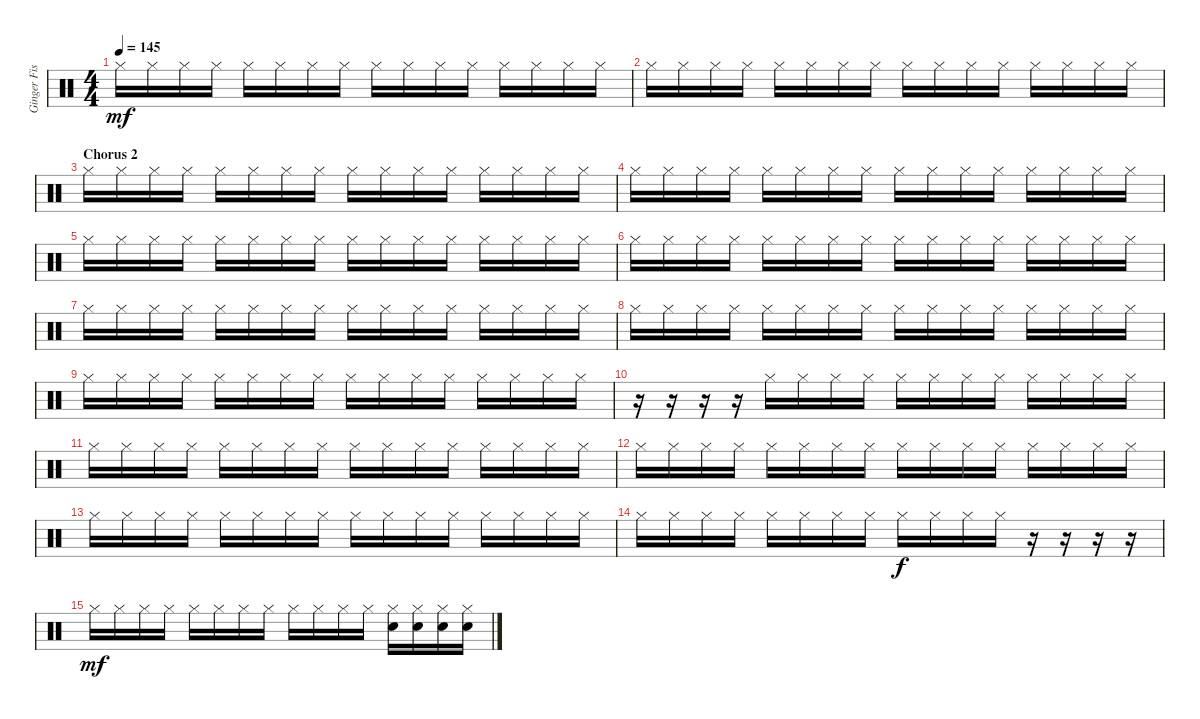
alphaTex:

\track ("Ginger Fish [Aditional Drums]" "Ginger Fis") {instrument percussion}
\staff {score}
\articulation defaults
\ts (4 4)
\tempo 145
\clef neutral
\ks c "Hi-Hat (closed)".16{dy mf} "Hi-Hat (closed)".16 "Hi-Hat (closed)".16 "Hi-Hat (closed)".16 "Hi-Hat (closed)".16 "Hi-Hat (closed)".16 "Hi-Hat (closed)".16 "Hi-Hat (closed)".16 "Hi-Hat (closed)".16 "Hi-Hat (closed)".16 "Hi-Hat (closed)".16 "Hi-Hat (closed)".16 "Hi-Hat (closed)".16 "Hi-Hat (closed)".16 "Hi-Hat (closed)".16 "Hi-Hat (closed)".16
|
"Hi-Hat (closed)".16 "Hi-Hat (closed)".16 "Hi-Hat (closed)".16 "Hi-Hat (closed)".16 "Hi-Hat (closed)".16 "Hi-Hat (closed)".16 "Hi-Hat (closed)".16 "Hi-Hat (closed)".16 "Hi-Hat (closed)".16 "Hi-Hat (closed)".16 "Hi-Hat (closed)".16 "Hi-Hat (closed)".16 "Hi-Hat (closed)".16 "Hi-Hat (closed)".16 "Hi-Hat (closed)".16 "Hi-Hat (closed)".16 |
\section ("" "Chorus 2")
"Hi-Hat (closed)".16 "Hi-Hat (closed)".16 "Hi-Hat (closed)".16 "Hi-Hat (closed)".16 "Hi-Hat (closed)".16 "Hi-Hat (closed)".16 "Hi-Hat (closed)".16 "Hi-Hat (closed)".16 "Hi-Hat (closed)".16 "Hi-Hat (closed)".16 "Hi-Hat (closed)".16 "Hi-Hat (closed)".16 "Hi-Hat (closed)".16 "Hi-Hat (closed)".16 "Hi-Hat (closed)".16 "Hi-Hat (closed)".16 |
"Hi-Hat (closed)".16 "Hi-Hat (closed)".16 "Hi-Hat (closed)".16 "Hi-Hat (closed)".16 "Hi-Hat (closed)".16 "Hi-Hat (closed)".16 "Hi-Hat (closed)".16 "Hi-Hat (closed)".16 "Hi-Hat (closed)".16 "Hi-Hat (closed)".16 "Hi-Hat (closed)".16 "Hi-Hat (closed)".16 "Hi-Hat (closed)".16 "Hi-Hat (closed)".16 "Hi-Hat (closed)".16 "Hi-Hat (closed)".16 |
"Hi-Hat (closed)".16 "Hi-Hat (closed)".16 "Hi-Hat (closed)".16 "Hi-Hat (closed)".16 "Hi-Hat (closed)".16 "Hi-Hat (closed)".16 "Hi-Hat (closed)".16 "Hi-Hat (closed)".16 "Hi-Hat (closed)".16 "Hi-Hat (closed)".16 "Hi-Hat (closed)".16 "Hi-Hat (closed)".16 "Hi-Hat (closed)".16 "Hi-Hat (closed)".16 "Hi-Hat (closed)".16 "Hi-Hat (closed)".16 |
"Hi-Hat (closed)".16 "Hi-Hat (closed)".16 "Hi-Hat (closed)".16 "Hi-Hat (closed)".16 "Hi-Hat (closed)".16 "Hi-Hat (closed)".16 "Hi-Hat (closed)".16 "Hi-Hat (closed)".16 "Hi-Hat (closed)".16 "Hi-Hat (closed)".16 "Hi-Hat (closed)".16 "Hi-Hat (closed)".16 "Hi-Hat (closed)".16 "Hi-Hat (closed)".16 "Hi-Hat (closed)".16 "Hi-Hat (closed)".16 |
"Hi-Hat (closed)".16 "Hi-Hat (closed)".16 "Hi-Hat (closed)".16 "Hi-Hat (closed)".16 "Hi-Hat (closed)".16 "Hi-Hat (closed)".16 "Hi-Hat (closed)".16 "Hi-Hat (closed)".16 "Hi-Hat (closed)".16 "Hi-Hat (closed)".16 "Hi-Hat (closed)".16 "Hi-Hat (closed)".16 "Hi-Hat (closed)".16 "Hi-Hat (closed)".16 "Hi-Hat (closed)".16 "Hi-Hat (closed)".16 |
"Hi-Hat (closed)".16 "Hi-Hat (closed)".16 "Hi-Hat (closed)".16 "Hi-Hat (closed)".16 "Hi-Hat (closed)".16 "Hi-Hat (closed)".16 "Hi-Hat (closed)".16 "Hi-Hat (closed)".16 "Hi-Hat (closed)".16 "Hi-Hat (closed)".16 "Hi-Hat (closed)".16 "Hi-Hat (closed)".16 "Hi-Hat (closed)".16 "Hi-Hat (closed)".16 "Hi-Hat (closed)".16 "Hi-Hat (closed)".16 |
"Hi-Hat (closed)".16 "Hi-Hat (closed)".16 "Hi-Hat (closed)".16 "Hi-Hat (closed)".16 "Hi-Hat (closed)".16 "Hi-Hat (closed)".16 "Hi-Hat (closed)".16 "Hi-Hat (closed)".16 "Hi-Hat (closed)".16 "Hi-Hat (closed)".16 "Hi-Hat (closed)".16 "Hi-Hat (closed)".16 "Hi-Hat (closed)".16 "Hi-Hat (closed)".16 "Hi-Hat (closed)".16 "Hi-Hat (closed)".16 |
r.16 r.16 r.16 r.16 "Hi-Hat (closed)".16 "Hi-Hat (closed)".16 "Hi-Hat (closed)".16 "Hi-Hat (closed)".16 "Hi-Hat (closed)".16 "Hi-Hat (closed)".16 "Hi-Hat (closed)".16 "Hi-Hat (closed)".16 "Hi-Hat (closed)".16 "Hi-Hat (closed)".16 "Hi-Hat (closed)".16 "Hi-Hat (closed)".16 |
"Hi-Hat (closed)".16 "Hi-Hat (closed)".16 "Hi-Hat (closed)".16 "Hi-Hat (closed)".16 "Hi-Hat (closed)".16 "Hi-Hat (closed)".16 "Hi-Hat (closed)".16 "Hi-Hat (closed)".16 "Hi-Hat (closed)".16 "Hi-Hat (closed)".16 "Hi-Hat (closed)".16 "Hi-Hat (closed)".16 "Hi-Hat (closed)".16 "Hi-Hat (closed)".16 "Hi-Hat (closed)".16 "Hi-Hat (closed)".16 |
"Hi-Hat (closed)".16 "Hi-Hat (closed)".16 "Hi-Hat (closed)".16 "Hi-Hat (closed)".16 "Hi-Hat (closed)".16 "Hi-Hat (closed)".16 "Hi-Hat (closed)".16 "Hi-Hat (closed)".16 "Hi-Hat (closed)".16 "Hi-Hat (closed)".16 "Hi-Hat (closed)".16 "Hi-Hat (closed)".16 "Hi-Hat (closed)".16 "Hi-Hat (closed)".16 "Hi-Hat (closed)".16 "Hi-Hat (closed)".16 |
"Hi-Hat (closed)".16 "Hi-Hat (closed)".16 "Hi-Hat (closed)".16 "Hi-Hat (closed)".16 "Hi-Hat (closed)".16 "Hi-Hat (closed)".16 "Hi-Hat (closed)".16 "Hi-Hat (closed)".16 "Hi-Hat (closed)".16 "Hi-Hat (closed)".16 "Hi-Hat (closed)".16 "Hi-Hat (closed)".16 "Hi-Hat (closed)".16 "Hi-Hat (closed)".16 "Hi-Hat (closed)".16 "Hi-Hat (closed)".16 |
"Hi-Hat (closed)".16 "Hi-Hat (closed)".16 "Hi-Hat (closed)".16 "Hi-Hat (closed)".16 "Hi-Hat (closed)".16 "Hi-Hat (closed)".16 "Hi-Hat (closed)".16 "Hi-Hat (closed)".16 "Hi-Hat (closed)".16{dy f} "Hi-Hat (closed)".16 "Hi-Hat (closed)".16 "Hi-Hat (closed)".16 r.16 r.16 r.16 r.16 |
"Hi-Hat (closed)".16{dy mf} "Hi-Hat (closed)".16 "Hi-Hat (closed)".16 "Hi-Hat (closed)".16 "Hi-Hat (closed)".16 "Hi-Hat (closed)".16 "Hi-Hat (closed)".16 "Hi-Hat (closed)".16 "Hi-Hat (closed)".16 "Hi-Hat (closed)".16 "Hi-Hat (closed)".16 "Hi-Hat (closed)".16 ("Hi-Hat (closed)" "Snare (hit) 2").16 ("Hi-Hat (closed)" "Snare (hit) 2").16 ("Hi-Hat (closed)" "Snare (hit) 2").16 ("Hi-Hat (closed)" "Snare (hit) 2").16
